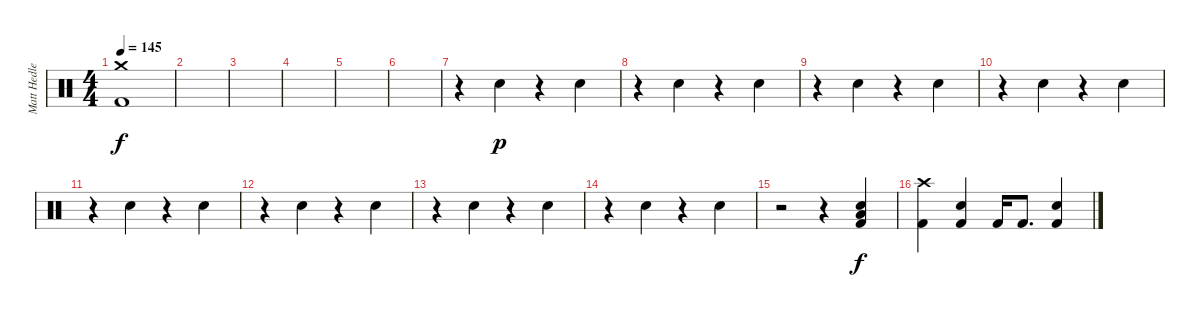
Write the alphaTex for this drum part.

\track ("Matt Hedlers" "Matt Hedle") {instrument percussion}
\staff {score}
\articulation defaults
\ts (4 4)
\tempo 145
\clef neutral
\ks c
("Crash medium (hit)" "Kick (hit) 2").1{dy f} |
|
|
|
|
|
r.4 "Snare (hit) 2".4{dy p} r.4 "Snare (hit) 2".4 |
r.4 "Snare (hit) 2".4 r.4 "Snare (hit) 2".4 |
r.4 "Snare (hit) 2".4 r.4 "Snare (hit) 2".4 |
r.4 "Snare (hit) 2".4 r.4 "Snare (hit) 2".4 |
r.4 "Snare (hit) 2".4 r.4 "Snare (hit) 2".4 |
r.4 "Snare (hit) 2".4 r.4 "Snare (hit) 2".4 |
r.4 "Snare (hit) 2".4 r.4 "Snare (hit) 2".4 |
r.4 "Snare (hit) 2".4 r.4 "Snare (hit) 2".4 |
r.2 r.4 ("Low Tom (hit)" "Snare (hit) 2" "Kick (hit) 2").4{dy f} |
("Crash high (hit)" "Kick (hit) 2").4 ("Snare (hit) 2" "Kick (hit) 2").4 "Kick (hit) 2".16 "Kick (hit) 2".8{d} ("Snare (hit) 2" "Kick (hit) 2").4
